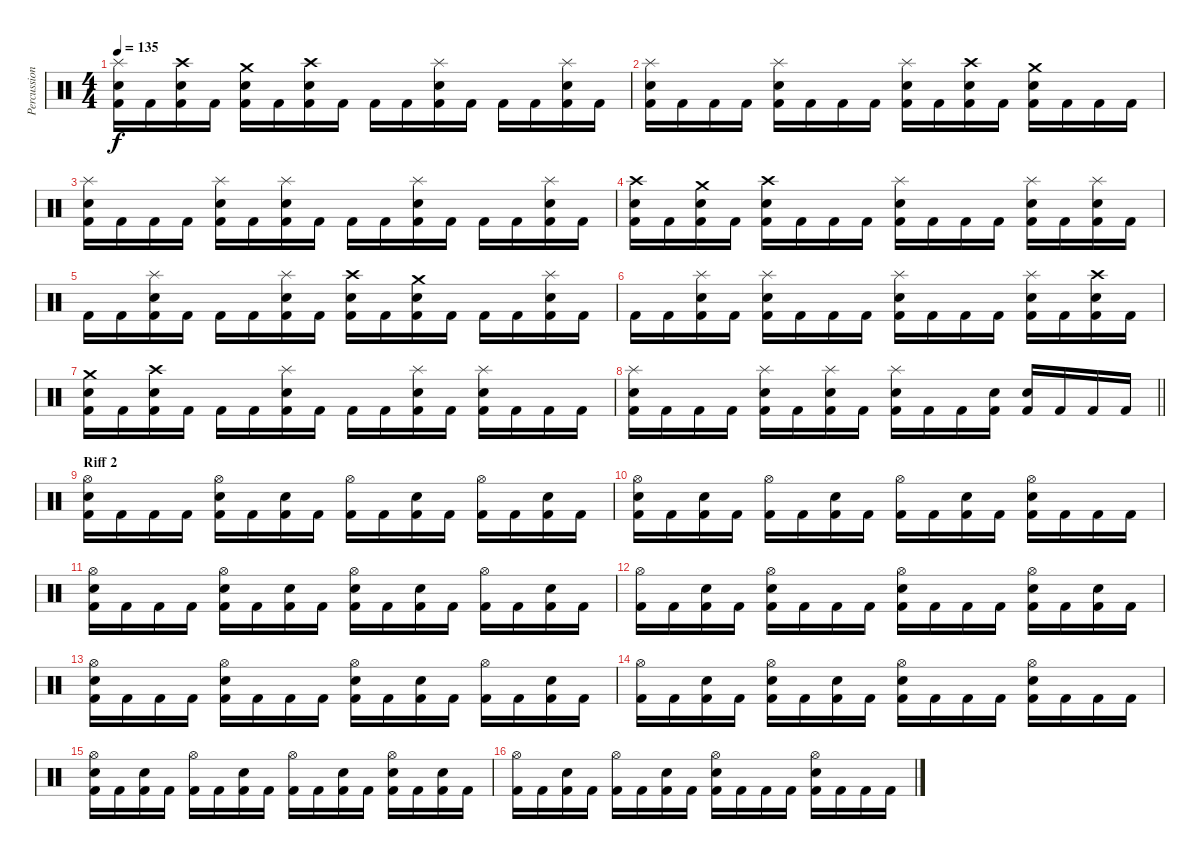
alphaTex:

\track ("Percussion" "Percussion") {instrument percussion}
\staff {score}
\articulation defaults
\ts (4 4)
\tempo 135
\clef neutral
\ks c
("Splash (hit)" "Snare (hit) 2" "Kick (hit) 2").16{dy f} "Kick (hit) 2".16 ("Crash high (hit)" "Snare (hit) 2" "Kick (hit) 2").16 "Kick (hit) 2".16 ("Crash medium (hit)" "Snare (hit) 2" "Kick (hit) 2").16 "Kick (hit) 2".16 ("Crash high (hit)" "Snare (hit) 2" "Kick (hit) 2").16 "Kick (hit) 2".16 "Kick (hit) 2".16 "Kick (hit) 2".16 ("Splash (hit)" "Snare (hit) 2" "Kick (hit) 2").16 "Kick (hit) 2".16 "Kick (hit) 2".16 "Kick (hit) 2".16 ("Splash (hit)" "Snare (hit) 2" "Kick (hit) 2").16 "Kick (hit) 2".16 |
("Splash (hit)" "Snare (hit) 2" "Kick (hit) 2").16 "Kick (hit) 2".16 "Kick (hit) 2".16 "Kick (hit) 2".16 ("Splash (hit)" "Snare (hit) 2" "Kick (hit) 2").16 "Kick (hit) 2".16 "Kick (hit) 2".16 "Kick (hit) 2".16 ("Splash (hit)" "Snare (hit) 2" "Kick (hit) 2").16 "Kick (hit) 2".16 ("Crash high (hit)" "Snare (hit) 2" "Kick (hit) 2").16 "Kick (hit) 2".16 ("Crash medium (hit)" "Snare (hit) 2" "Kick (hit) 2").16 "Kick (hit) 2".16 "Kick (hit) 2".16 "Kick (hit) 2".16 |
("Splash (hit)" "Snare (hit) 2" "Kick (hit) 2").16 "Kick (hit) 2".16 "Kick (hit) 2".16 "Kick (hit) 2".16 ("Splash (hit)" "Snare (hit) 2" "Kick (hit) 2").16 "Kick (hit) 2".16 ("Splash (hit)" "Snare (hit) 2" "Kick (hit) 2").16 "Kick (hit) 2".16 "Kick (hit) 2".16 "Kick (hit) 2".16 ("Splash (hit)" "Snare (hit) 2" "Kick (hit) 2").16 "Kick (hit) 2".16 "Kick (hit) 2".16 "Kick (hit) 2".16 ("Splash (hit)" "Snare (hit) 2" "Kick (hit) 2").16 "Kick (hit) 2".16 |
("Crash high (hit)" "Snare (hit) 2" "Kick (hit) 2").16 "Kick (hit) 2".16 ("Crash medium (hit)" "Snare (hit) 2" "Kick (hit) 2").16 "Kick (hit) 2".16 ("Crash high (hit)" "Snare (hit) 2" "Kick (hit) 2").16 "Kick (hit) 2".16 "Kick (hit) 2".16 "Kick (hit) 2".16 ("Splash (hit)" "Snare (hit) 2" "Kick (hit) 2").16 "Kick (hit) 2".16 "Kick (hit) 2".16 "Kick (hit) 2".16 ("Splash (hit)" "Snare (hit) 2" "Kick (hit) 2").16 "Kick (hit) 2".16 ("Splash (hit)" "Snare (hit) 2" "Kick (hit) 2").16 "Kick (hit) 2".16 |
"Kick (hit) 2".16 "Kick (hit) 2".16 ("Splash (hit)" "Snare (hit) 2" "Kick (hit) 2").16 "Kick (hit) 2".16 "Kick (hit) 2".16 "Kick (hit) 2".16 ("Splash (hit)" "Snare (hit) 2" "Kick (hit) 2").16 "Kick (hit) 2".16 ("Crash high (hit)" "Snare (hit) 2" "Kick (hit) 2").16 "Kick (hit) 2".16 ("Crash medium (hit)" "Snare (hit) 2" "Kick (hit) 2").16 "Kick (hit) 2".16 "Kick (hit) 2".16 "Kick (hit) 2".16 ("Splash (hit)" "Snare (hit) 2" "Kick (hit) 2").16 "Kick (hit) 2".16 |
"Kick (hit) 2".16 "Kick (hit) 2".16 ("Splash (hit)" "Snare (hit) 2" "Kick (hit) 2").16 "Kick (hit) 2".16 ("Splash (hit)" "Snare (hit) 2" "Kick (hit) 2").16 "Kick (hit) 2".16 "Kick (hit) 2".16 "Kick (hit) 2".16 ("Splash (hit)" "Snare (hit) 2" "Kick (hit) 2").16 "Kick (hit) 2".16 "Kick (hit) 2".16 "Kick (hit) 2".16 ("Splash (hit)" "Snare (hit) 2" "Kick (hit) 2").16 "Kick (hit) 2".16 ("Crash high (hit)" "Snare (hit) 2" "Kick (hit) 2").16 "Kick (hit) 2".16 |
("Crash medium (hit)" "Snare (hit) 2" "Kick (hit) 2").16 "Kick (hit) 2".16 ("Crash high (hit)" "Snare (hit) 2" "Kick (hit) 2").16 "Kick (hit) 2".16 "Kick (hit) 2".16 "Kick (hit) 2".16 ("Splash (hit)" "Snare (hit) 2" "Kick (hit) 2").16 "Kick (hit) 2".16 "Kick (hit) 2".16 "Kick (hit) 2".16 ("Splash (hit)" "Snare (hit) 2" "Kick (hit) 2").16 "Kick (hit) 2".16 ("Splash (hit)" "Snare (hit) 2" "Kick (hit) 2").16 "Kick (hit) 2".16 "Kick (hit) 2".16 "Kick (hit) 2".16 |
\barLineRight lightlight
("Splash (hit)" "Snare (hit) 2" "Kick (hit) 2").16 "Kick (hit) 2".16 "Kick (hit) 2".16 "Kick (hit) 2".16 ("Splash (hit)" "Snare (hit) 2" "Kick (hit) 2").16 "Kick (hit) 2".16 ("Splash (hit)" "Snare (hit) 2" "Kick (hit) 2").16 "Kick (hit) 2".16 ("Splash (hit)" "Snare (hit) 2" "Kick (hit) 2").16 "Kick (hit) 2".16 "Kick (hit) 2".16 ("Snare (hit) 2" "Kick (hit) 2").16 ("Snare (hit) 2" "Kick (hit) 2").16 "Kick (hit) 2".16 "Kick (hit) 2".16 "Kick (hit) 2".16 |
\section ("" "Riff 2")
("Hi-Hat (open)" "Snare (hit) 2" "Kick (hit) 2").16 "Kick (hit) 2".16 "Kick (hit) 2".16 "Kick (hit) 2".16 ("Hi-Hat (open)" "Snare (hit) 2" "Kick (hit) 2").16 "Kick (hit) 2".16 ("Snare (hit) 2" "Kick (hit) 2").16 "Kick (hit) 2".16 ("Hi-Hat (open)" "Kick (hit) 2").16 "Kick (hit) 2".16 ("Snare (hit) 2" "Kick (hit) 2").16 "Kick (hit) 2".16 ("Hi-Hat (open)" "Kick (hit) 2").16 "Kick (hit) 2".16 ("Snare (hit) 2" "Kick (hit) 2").16 "Kick (hit) 2".16 |
("Hi-Hat (open)" "Snare (hit) 2" "Kick (hit) 2").16 "Kick (hit) 2".16 ("Snare (hit) 2" "Kick (hit) 2").16 "Kick (hit) 2".16 ("Hi-Hat (open)" "Kick (hit) 2").16 "Kick (hit) 2".16 ("Snare (hit) 2" "Kick (hit) 2").16 "Kick (hit) 2".16 ("Hi-Hat (open)" "Kick (hit) 2").16 "Kick (hit) 2".16 ("Snare (hit) 2" "Kick (hit) 2").16 "Kick (hit) 2".16 ("Hi-Hat (open)" "Snare (hit) 2" "Kick (hit) 2").16 "Kick (hit) 2".16 "Kick (hit) 2".16 "Kick (hit) 2".16 |
("Hi-Hat (open)" "Snare (hit) 2" "Kick (hit) 2").16 "Kick (hit) 2".16 "Kick (hit) 2".16 "Kick (hit) 2".16 ("Hi-Hat (open)" "Snare (hit) 2" "Kick (hit) 2").16 "Kick (hit) 2".16 ("Snare (hit) 2" "Kick (hit) 2").16 "Kick (hit) 2".16 ("Hi-Hat (open)" "Snare (hit) 2" "Kick (hit) 2").16 "Kick (hit) 2".16 ("Snare (hit) 2" "Kick (hit) 2").16 "Kick (hit) 2".16 ("Hi-Hat (open)" "Kick (hit) 2").16 "Kick (hit) 2".16 ("Snare (hit) 2" "Kick (hit) 2").16 "Kick (hit) 2".16 |
("Hi-Hat (open)" "Kick (hit) 2").16 "Kick (hit) 2".16 ("Snare (hit) 2" "Kick (hit) 2").16 "Kick (hit) 2".16 ("Hi-Hat (open)" "Snare (hit) 2" "Kick (hit) 2").16 "Kick (hit) 2".16 "Kick (hit) 2".16 "Kick (hit) 2".16 ("Hi-Hat (open)" "Snare (hit) 2" "Kick (hit) 2").16 "Kick (hit) 2".16 "Kick (hit) 2".16 "Kick (hit) 2".16 ("Hi-Hat (open)" "Snare (hit) 2" "Kick (hit) 2").16 "Kick (hit) 2".16 ("Snare (hit) 2" "Kick (hit) 2").16 "Kick (hit) 2".16 |
("Hi-Hat (open)" "Snare (hit) 2" "Kick (hit) 2").16 "Kick (hit) 2".16 "Kick (hit) 2".16 "Kick (hit) 2".16 ("Hi-Hat (open)" "Snare (hit) 2" "Kick (hit) 2").16 "Kick (hit) 2".16 "Kick (hit) 2".16 "Kick (hit) 2".16 ("Hi-Hat (open)" "Snare (hit) 2" "Kick (hit) 2").16 "Kick (hit) 2".16 ("Snare (hit) 2" "Kick (hit) 2").16 "Kick (hit) 2".16 ("Hi-Hat (open)" "Kick (hit) 2").16 "Kick (hit) 2".16 ("Snare (hit) 2" "Kick (hit) 2").16 "Kick (hit) 2".16 |
("Hi-Hat (open)" "Kick (hit) 2").16 "Kick (hit) 2".16 ("Snare (hit) 2" "Kick (hit) 2").16 "Kick (hit) 2".16 ("Hi-Hat (open)" "Snare (hit) 2" "Kick (hit) 2").16 "Kick (hit) 2".16 ("Snare (hit) 2" "Kick (hit) 2").16 "Kick (hit) 2".16 ("Hi-Hat (open)" "Snare (hit) 2" "Kick (hit) 2").16 "Kick (hit) 2".16 "Kick (hit) 2".16 "Kick (hit) 2".16 ("Hi-Hat (open)" "Snare (hit) 2" "Kick (hit) 2").16 "Kick (hit) 2".16 "Kick (hit) 2".16 "Kick (hit) 2".16 |
("Hi-Hat (open)" "Snare (hit) 2" "Kick (hit) 2").16 "Kick (hit) 2".16 ("Snare (hit) 2" "Kick (hit) 2").16 "Kick (hit) 2".16 ("Hi-Hat (open)" "Kick (hit) 2").16 "Kick (hit) 2".16 ("Snare (hit) 2" "Kick (hit) 2").16 "Kick (hit) 2".16 ("Hi-Hat (open)" "Kick (hit) 2").16 "Kick (hit) 2".16 ("Snare (hit) 2" "Kick (hit) 2").16 "Kick (hit) 2".16 ("Hi-Hat (open)" "Snare (hit) 2" "Kick (hit) 2").16 "Kick (hit) 2".16 ("Snare (hit) 2" "Kick (hit) 2").16 "Kick (hit) 2".16 |
("Hi-Hat (open)" "Kick (hit) 2").16 "Kick (hit) 2".16 ("Snare (hit) 2" "Kick (hit) 2").16 "Kick (hit) 2".16 ("Hi-Hat (open)" "Kick (hit) 2").16 "Kick (hit) 2".16 ("Snare (hit) 2" "Kick (hit) 2").16 "Kick (hit) 2".16 ("Hi-Hat (open)" "Snare (hit) 2" "Kick (hit) 2").16 "Kick (hit) 2".16 "Kick (hit) 2".16 "Kick (hit) 2".16 ("Hi-Hat (open)" "Snare (hit) 2" "Kick (hit) 2").16 "Kick (hit) 2".16 "Kick (hit) 2".16 "Kick (hit) 2".16
